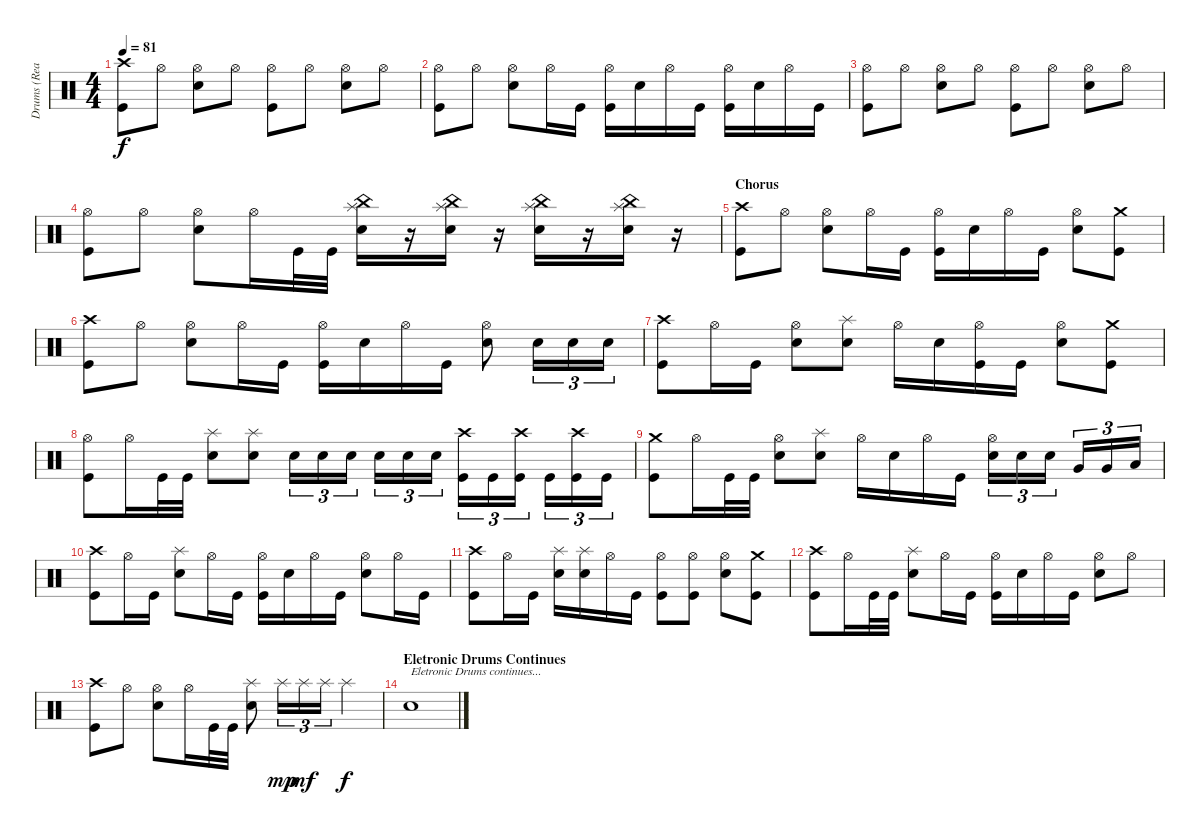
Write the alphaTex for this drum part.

\track ("Drums (Real)" "Drums (Rea") {instrument percussion}
\staff {score}
\articulation defaults
\ts (4 4)
\tempo 81
\clef neutral
\ks c
("Crash high (hit)" "Kick (hit)").8{dy f} "Hi-Hat (open)".8 ("Hi-Hat (open)" "Snare (hit) 2").8 "Hi-Hat (open)".8 ("Hi-Hat (open)" "Kick (hit)").8 "Hi-Hat (open)".8 ("Hi-Hat (open)" "Snare (hit) 2").8 "Hi-Hat (open)".8 |
("Hi-Hat (open)" "Kick (hit)").8 "Hi-Hat (open)".8 ("Hi-Hat (open)" "Snare (hit) 2").8 "Hi-Hat (open)".16 "Kick (hit)".16 ("Hi-Hat (open)" "Kick (hit)").16 "Snare (hit) 2".16 "Hi-Hat (open)".16 "Kick (hit)".16 ("Hi-Hat (open)" "Kick (hit)").16 "Snare (hit) 2".16 "Hi-Hat (open)".16 "Kick (hit)".16 |
("Hi-Hat (open)" "Kick (hit)").8 "Hi-Hat (open)".8 ("Hi-Hat (open)" "Snare (hit) 2").8 "Hi-Hat (open)".8 ("Hi-Hat (open)" "Kick (hit)").8 "Hi-Hat (open)".8 ("Hi-Hat (open)" "Snare (hit) 2").8 "Hi-Hat (open)".8 |
("Hi-Hat (open)" "Kick (hit)").8 "Hi-Hat (open)".8 ("Hi-Hat (open)" "Snare (hit) 2").8 "Hi-Hat (open)".16 "Kick (hit)".32 "Kick (hit)".32 ("China (hit)" "Splash (hit)" "Snare (hit) 2").16 r.16 ("China (hit)" "Splash (hit)" "Snare (hit) 2").16 r.16 ("China (hit)" "Splash (hit)" "Snare (hit) 2").16 r.16 ("China (hit)" "Splash (hit)" "Snare (hit) 2").16 r.16 |
\section ("" "Chorus")
("Crash high (hit)" "Kick (hit)").8 "Hi-Hat (open)".8 ("Hi-Hat (open)" "Snare (hit) 2").8 "Hi-Hat (open)".16 "Kick (hit)".16 ("Hi-Hat (open)" "Kick (hit)").16 "Snare (hit) 2".16 "Hi-Hat (open)".16 "Kick (hit)".16 ("Hi-Hat (open)" "Snare (hit) 2").8 ("Crash medium (hit)" "Kick (hit)").8 |
("Crash high (hit)" "Kick (hit)").8 "Hi-Hat (open)".8 ("Hi-Hat (open)" "Snare (hit) 2").8 "Hi-Hat (open)".16 "Kick (hit)".16 ("Hi-Hat (open)" "Kick (hit)").16 "Snare (hit) 2".16 "Hi-Hat (open)".16 "Kick (hit)".16 ("Hi-Hat (open)" "Snare (hit) 2").8 "Snare (hit) 2".16{tu (3 2)} "Snare (hit) 2".16{tu (3 2)} "Snare (hit) 2".16{tu (3 2)} |
("Crash high (hit)" "Kick (hit)").8 "Hi-Hat (open)".16 "Kick (hit)".16 ("Hi-Hat (open)" "Snare (hit) 2").8 ("Splash (hit)" "Snare (hit) 2").8 "Hi-Hat (open)".16 "Snare (hit) 2".16 ("Hi-Hat (open)" "Kick (hit)").16 "Kick (hit)".16 ("Hi-Hat (open)" "Snare (hit) 2").8 ("Crash medium (hit)" "Kick (hit)").8 |
("Hi-Hat (open)" "Kick (hit)").8 "Hi-Hat (open)".16 "Kick (hit)".32 "Kick (hit)".32 ("Splash (hit)" "Snare (hit) 2").8 ("Splash (hit)" "Snare (hit) 2").8 "Snare (hit) 2".16{tu (3 2)} "Snare (hit) 2".16{tu (3 2)} "Snare (hit) 2".16{tu (3 2)} "Snare (hit) 2".16{tu (3 2)} "Snare (hit) 2".16{tu (3 2)} "Snare (hit) 2".16{tu (3 2)} ("Crash high (hit)" "Kick (hit)").16{tu (3 2)} "Kick (hit)".16{tu (3 2)} ("Crash high (hit)" "Kick (hit)").16{tu (3 2)} "Kick (hit)".16{tu (3 2)} ("Crash high (hit)" "Kick (hit)").16{tu (3 2)} "Kick (hit)".16{tu (3 2)} |
("Crash medium (hit)" "Kick (hit)").8 "Hi-Hat (open)".16 "Kick (hit)".32 "Kick (hit)".32 ("Hi-Hat (open)" "Snare (hit) 2").8 ("Splash (hit)" "Snare (hit) 2").8 "Hi-Hat (open)".16 "Snare (hit) 2".16 "Hi-Hat (open)".16 "Kick (hit)".16 ("Hi-Hat (open)" "Snare (hit) 2").16{tu (3 2)} "Snare (hit) 2".16{tu (3 2)} "Snare (hit) 2".16{tu (3 2)} "Very Low Tom (hit)".16{tu (3 2)} "Very Low Tom (hit)".16{tu (3 2)} "Low Floor Tom (hit)".16{tu (3 2)} |
("Crash high (hit)" "Kick (hit)").8 "Hi-Hat (open)".16 "Kick (hit)".16 ("Splash (hit)" "Snare (hit) 2").8 "Hi-Hat (open)".16 "Kick (hit)".16 ("Hi-Hat (open)" "Kick (hit)").16 "Snare (hit) 2".16 "Hi-Hat (open)".16 "Kick (hit)".16 ("Hi-Hat (open)" "Snare (hit) 2").8 "Hi-Hat (open)".16 "Kick (hit)".16 |
("Crash high (hit)" "Kick (hit)").8 "Hi-Hat (open)".16 "Kick (hit)".16 ("Splash (hit)" "Snare (hit) 2").16 ("Splash (hit)" "Snare (hit) 2").16 "Hi-Hat (open)".16 "Kick (hit)".16 ("Hi-Hat (open)" "Kick (hit)").8 ("Hi-Hat (open)" "Kick (hit)").8 ("Hi-Hat (open)" "Snare (hit) 2").8 ("Crash medium (hit)" "Kick (hit)").8 |
("Crash high (hit)" "Kick (hit)").8 "Hi-Hat (open)".16 "Kick (hit)".32 "Kick (hit)".32 ("Splash (hit)" "Snare (hit) 2").8 "Hi-Hat (open)".16 "Kick (hit)".16 ("Hi-Hat (open)" "Kick (hit)").16 "Snare (hit) 2".16 "Hi-Hat (open)".16 "Kick (hit)".16 ("Hi-Hat (open)" "Snare (hit) 2").8 "Hi-Hat (open)".8 |
("Crash high (hit)" "Kick (hit)").8 "Hi-Hat (open)".8 ("Hi-Hat (open)" "Snare (hit) 2").8 "Hi-Hat (open)".16 "Kick (hit)".32 "Kick (hit)".32 ("Splash (hit)" "Snare (hit) 2").8 "Splash (hit)".16{tu (3 2) dy mp} "Splash (hit)".16{tu (3 2) dy mf} "Splash (hit)".16{tu (3 2)} "Splash (hit)".4{dy f} |
\section ("" "Eletronic Drums Continues")
"Snare (hit)".1{txt "Eletronic Drums continues..."}
